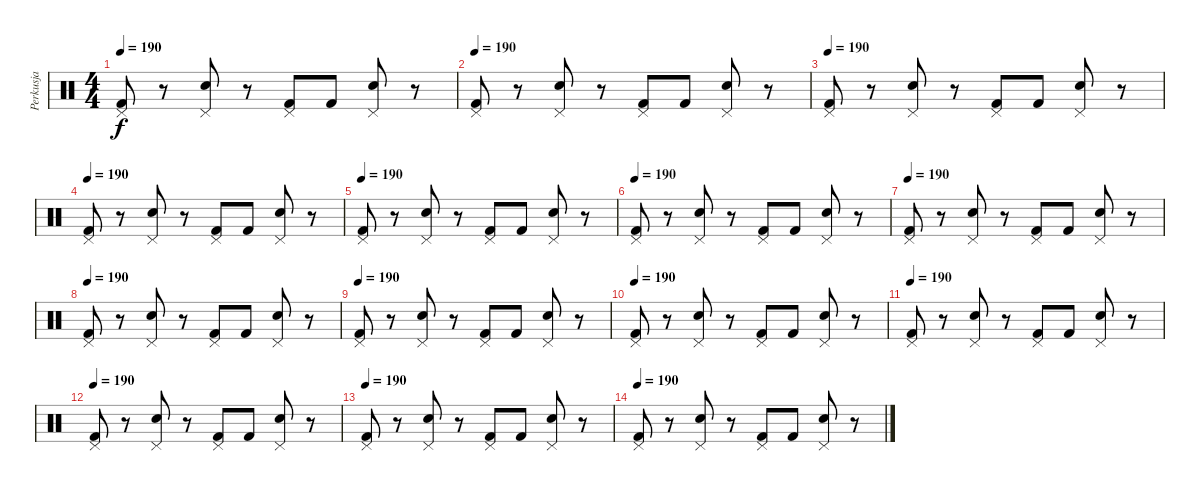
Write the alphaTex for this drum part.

\track ("Perkusja" "Perkusja") {instrument percussion}
\staff {score}
\articulation defaults
\ts (4 4)
\tempo 190
\clef neutral
\ks c
("Pedal Hi-Hat (hit)" "Kick (hit) 2").8{dy f} r.8 ("Pedal Hi-Hat (hit)" "Snare (hit) 2").8 r.8 ("Pedal Hi-Hat (hit)" "Kick (hit) 2").8 "Kick (hit) 2".8 ("Pedal Hi-Hat (hit)" "Snare (hit) 2").8 r.8 |
\tempo 190
("Pedal Hi-Hat (hit)" "Kick (hit) 2").8 r.8 ("Pedal Hi-Hat (hit)" "Snare (hit) 2").8 r.8 ("Pedal Hi-Hat (hit)" "Kick (hit) 2").8 "Kick (hit) 2".8 ("Pedal Hi-Hat (hit)" "Snare (hit) 2").8 r.8 |
\tempo 190
("Pedal Hi-Hat (hit)" "Kick (hit) 2").8 r.8 ("Pedal Hi-Hat (hit)" "Snare (hit) 2").8 r.8 ("Pedal Hi-Hat (hit)" "Kick (hit) 2").8 "Kick (hit) 2".8 ("Pedal Hi-Hat (hit)" "Snare (hit) 2").8 r.8 |
\tempo 190
("Pedal Hi-Hat (hit)" "Kick (hit) 2").8 r.8 ("Pedal Hi-Hat (hit)" "Snare (hit) 2").8 r.8 ("Pedal Hi-Hat (hit)" "Kick (hit) 2").8 "Kick (hit) 2".8 ("Pedal Hi-Hat (hit)" "Snare (hit) 2").8 r.8 |
\tempo 190
("Pedal Hi-Hat (hit)" "Kick (hit) 2").8 r.8 ("Pedal Hi-Hat (hit)" "Snare (hit) 2").8 r.8 ("Pedal Hi-Hat (hit)" "Kick (hit) 2").8 "Kick (hit) 2".8 ("Pedal Hi-Hat (hit)" "Snare (hit) 2").8 r.8 |
\tempo 190
("Pedal Hi-Hat (hit)" "Kick (hit) 2").8 r.8 ("Pedal Hi-Hat (hit)" "Snare (hit) 2").8 r.8 ("Pedal Hi-Hat (hit)" "Kick (hit) 2").8 "Kick (hit) 2".8 ("Pedal Hi-Hat (hit)" "Snare (hit) 2").8 r.8 |
\tempo 190
("Pedal Hi-Hat (hit)" "Kick (hit) 2").8 r.8 ("Pedal Hi-Hat (hit)" "Snare (hit) 2").8 r.8 ("Pedal Hi-Hat (hit)" "Kick (hit) 2").8 "Kick (hit) 2".8 ("Pedal Hi-Hat (hit)" "Snare (hit) 2").8 r.8 |
\tempo 190
("Pedal Hi-Hat (hit)" "Kick (hit) 2").8 r.8 ("Pedal Hi-Hat (hit)" "Snare (hit) 2").8 r.8 ("Pedal Hi-Hat (hit)" "Kick (hit) 2").8 "Kick (hit) 2".8 ("Pedal Hi-Hat (hit)" "Snare (hit) 2").8 r.8 |
\tempo 190
("Pedal Hi-Hat (hit)" "Kick (hit) 2").8 r.8 ("Pedal Hi-Hat (hit)" "Snare (hit) 2").8 r.8 ("Pedal Hi-Hat (hit)" "Kick (hit) 2").8 "Kick (hit) 2".8 ("Pedal Hi-Hat (hit)" "Snare (hit) 2").8 r.8 |
\tempo 190
("Pedal Hi-Hat (hit)" "Kick (hit) 2").8 r.8 ("Pedal Hi-Hat (hit)" "Snare (hit) 2").8 r.8 ("Pedal Hi-Hat (hit)" "Kick (hit) 2").8 "Kick (hit) 2".8 ("Pedal Hi-Hat (hit)" "Snare (hit) 2").8 r.8 |
\tempo 190
("Pedal Hi-Hat (hit)" "Kick (hit) 2").8 r.8 ("Pedal Hi-Hat (hit)" "Snare (hit) 2").8 r.8 ("Pedal Hi-Hat (hit)" "Kick (hit) 2").8 "Kick (hit) 2".8 ("Pedal Hi-Hat (hit)" "Snare (hit) 2").8 r.8 |
\tempo 190
("Pedal Hi-Hat (hit)" "Kick (hit) 2").8 r.8 ("Pedal Hi-Hat (hit)" "Snare (hit) 2").8 r.8 ("Pedal Hi-Hat (hit)" "Kick (hit) 2").8 "Kick (hit) 2".8 ("Pedal Hi-Hat (hit)" "Snare (hit) 2").8 r.8 |
\tempo 190
("Pedal Hi-Hat (hit)" "Kick (hit) 2").8 r.8 ("Pedal Hi-Hat (hit)" "Snare (hit) 2").8 r.8 ("Pedal Hi-Hat (hit)" "Kick (hit) 2").8 "Kick (hit) 2".8 ("Pedal Hi-Hat (hit)" "Snare (hit) 2").8 r.8 |
\tempo 190
("Pedal Hi-Hat (hit)" "Kick (hit) 2").8 r.8 ("Pedal Hi-Hat (hit)" "Snare (hit) 2").8 r.8 ("Pedal Hi-Hat (hit)" "Kick (hit) 2").8 "Kick (hit) 2".8 ("Pedal Hi-Hat (hit)" "Snare (hit) 2").8 r.8
